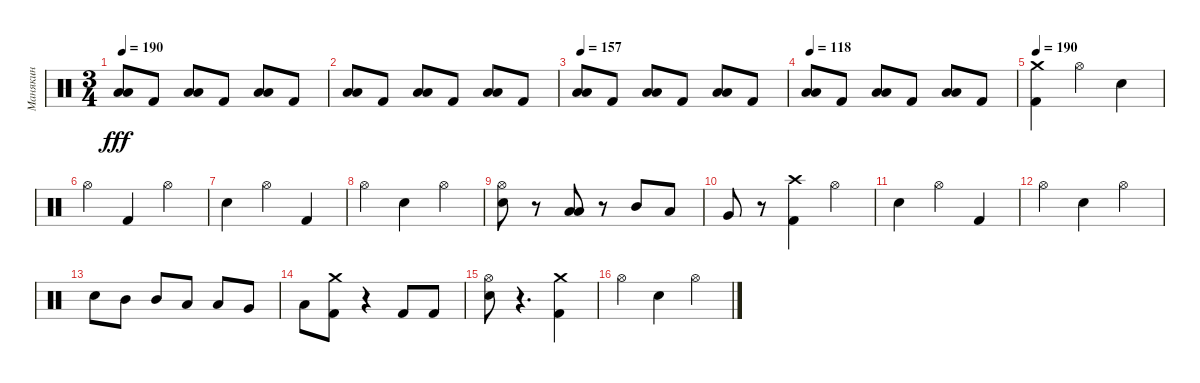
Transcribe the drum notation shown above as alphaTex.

\track ("Манякин" "Манякин") {instrument percussion}
\staff {score}
\articulation defaults
\ts (3 4)
\tempo 190
\clef neutral
\ks c
("Low Tom (hit)" "Low Floor Tom (hit)").8{dy fff} "Kick (hit) 2".8 ("Low Floor Tom (hit)" "Low Tom (hit)").8 "Kick (hit) 2".8 ("Low Floor Tom (hit)" "Low Tom (hit)").8 "Kick (hit) 2".8 |
("Low Floor Tom (hit)" "Low Tom (hit)").8 "Kick (hit) 2".8 ("Low Floor Tom (hit)" "Low Tom (hit)").8 "Kick (hit) 2".8 ("Low Floor Tom (hit)" "Low Tom (hit)").8 "Kick (hit) 2".8 |
\tempo 157
("Low Floor Tom (hit)" "Low Tom (hit)").8 "Kick (hit) 2".8 ("Low Floor Tom (hit)" "Low Tom (hit)").8 "Kick (hit) 2".8 ("Low Floor Tom (hit)" "Low Tom (hit)").8 "Kick (hit) 2".8 |
\tempo 118
("Low Floor Tom (hit)" "Low Tom (hit)").8 "Kick (hit) 2".8 ("Low Floor Tom (hit)" "Low Tom (hit)").8 "Kick (hit) 2".8 ("Low Floor Tom (hit)" "Low Tom (hit)").8 "Kick (hit) 2".8 |
\tempo 190
("Kick (hit) 2" "Crash medium (hit)").4 "Hi-Hat (open)".4 "Snare (hit) 2".4 |
"Hi-Hat (open)".4 "Kick (hit) 2".4 "Hi-Hat (open)".4 |
"Snare (hit) 2".4 "Hi-Hat (open)".4 "Kick (hit) 2".4 |
"Hi-Hat (open)".4 "Snare (hit) 2".4 "Hi-Hat (open)".4 |
("Hi-Hat (open)" "Snare (hit) 2").8 r.8 ("Low Tom (hit)" "Low Floor Tom (hit)").8 r.8 "Mid Tom (hit)".8 "Low Tom (hit)".8 |
"Very Low Tom (hit)".8 r.8 ("Kick (hit) 2" "Crash high (hit)").4 "Hi-Hat (open)".4 |
"Snare (hit) 2".4 "Hi-Hat (open)".4 "Kick (hit) 2".4 |
"Hi-Hat (open)".4 "Snare (hit) 2".4 "Hi-Hat (open)".4 |
"Snare (hit) 2".8 "Mid Tom (hit)".8 "Mid Tom (hit)".8 "Low Tom (hit)".8 "Low Tom (hit)".8 "Very Low Tom (hit)".8 |
"Low Floor Tom (hit)".8 ("Crash medium (hit)" "Kick (hit) 2").8 r.4 "Kick (hit) 2".8 "Kick (hit) 2".8 |
("Hi-Hat (open)" "Snare (hit) 2").8 r.4{d} ("Kick (hit) 2" "Crash medium (hit)").4 |
"Hi-Hat (open)".4 "Snare (hit) 2".4 "Hi-Hat (open)".4
